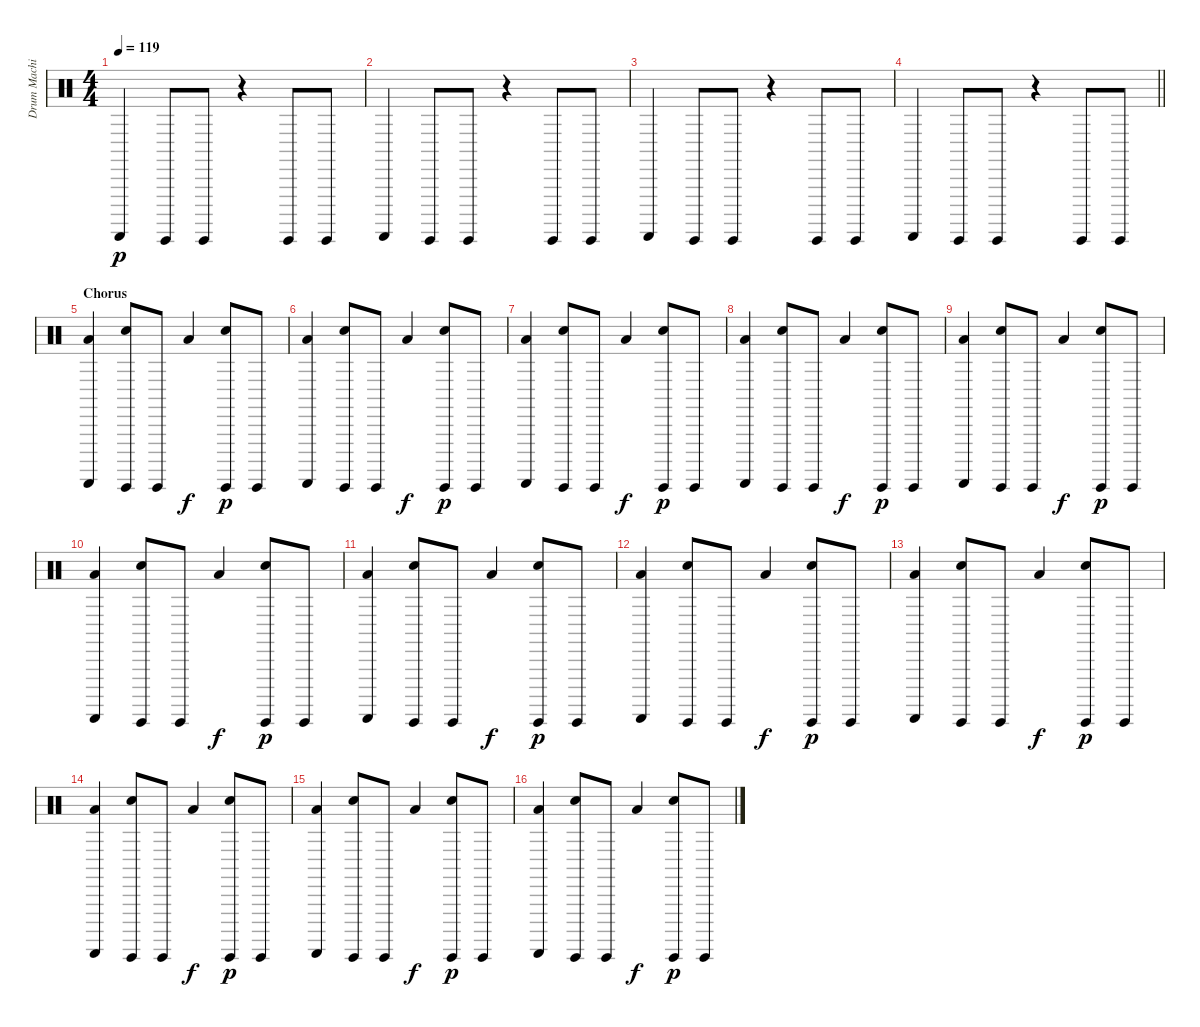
\track ("Drum Machine" "Drum Machi") {instrument percussion}
\staff {score}
\articulation defaults
\ts (4 4)
\tempo 119
\clef neutral
\ks c "Guiro (scrap-return)".4{dy p} "Guiro (hit)".8 "Guiro (hit)".8
r.4 "Guiro (hit)".8 "Guiro (hit)".8 |
"Guiro (scrap-return)".4 "Guiro (hit)".8 "Guiro (hit)".8 r.4 "Guiro (hit)".8 "Guiro (hit)".8 |
"Guiro (scrap-return)".4 "Guiro (hit)".8 "Guiro (hit)".8 r.4 "Guiro (hit)".8 "Guiro (hit)".8 |
\barLineRight lightlight "Guiro (scrap-return)".4 "Guiro (hit)".8 "Guiro (hit)".8
r.4 "Guiro (hit)".8 "Guiro (hit)".8 |
\section ("" "Chorus")
("Low Floor Tom (hit)" "Guiro (scrap-return)").4 ("Snare (hit) 2" "Guiro (hit)").8 "Guiro (hit)".8 "Low Floor Tom (hit)".4{dy f} ("Snare (hit) 2" "Guiro (hit)").8{dy p} "Guiro (hit)".8 |
("Low Floor Tom (hit)" "Guiro (scrap-return)").4 ("Snare (hit) 2" "Guiro (hit)").8 "Guiro (hit)".8 "Low Floor Tom (hit)".4{dy f} ("Snare (hit) 2" "Guiro (hit)").8{dy p} "Guiro (hit)".8 |
("Low Floor Tom (hit)" "Guiro (scrap-return)").4 ("Snare (hit) 2" "Guiro (hit)").8 "Guiro (hit)".8 "Low Floor Tom (hit)".4{dy f} ("Snare (hit) 2" "Guiro (hit)").8{dy p} "Guiro (hit)".8 |
("Low Floor Tom (hit)" "Guiro (scrap-return)").4 ("Snare (hit) 2" "Guiro (hit)").8 "Guiro (hit)".8 "Low Floor Tom (hit)".4{dy f} ("Snare (hit) 2" "Guiro (hit)").8{dy p} "Guiro (hit)".8 |
("Low Floor Tom (hit)" "Guiro (scrap-return)").4 ("Snare (hit) 2" "Guiro (hit)").8 "Guiro (hit)".8 "Low Floor Tom (hit)".4{dy f} ("Snare (hit) 2" "Guiro (hit)").8{dy p} "Guiro (hit)".8 |
("Low Floor Tom (hit)" "Guiro (scrap-return)").4 ("Snare (hit) 2" "Guiro (hit)").8 "Guiro (hit)".8 "Low Floor Tom (hit)".4{dy f} ("Snare (hit) 2" "Guiro (hit)").8{dy p} "Guiro (hit)".8 |
("Low Floor Tom (hit)" "Guiro (scrap-return)").4 ("Snare (hit) 2" "Guiro (hit)").8 "Guiro (hit)".8 "Low Floor Tom (hit)".4{dy f} ("Snare (hit) 2" "Guiro (hit)").8{dy p} "Guiro (hit)".8 |
("Low Floor Tom (hit)" "Guiro (scrap-return)").4 ("Snare (hit) 2" "Guiro (hit)").8 "Guiro (hit)".8 "Low Floor Tom (hit)".4{dy f} ("Snare (hit) 2" "Guiro (hit)").8{dy p} "Guiro (hit)".8 |
("Low Floor Tom (hit)" "Guiro (scrap-return)").4 ("Snare (hit) 2" "Guiro (hit)").8 "Guiro (hit)".8 "Low Floor Tom (hit)".4{dy f} ("Snare (hit) 2" "Guiro (hit)").8{dy p} "Guiro (hit)".8 |
("Low Floor Tom (hit)" "Guiro (scrap-return)").4 ("Snare (hit) 2" "Guiro (hit)").8 "Guiro (hit)".8 "Low Floor Tom (hit)".4{dy f} ("Snare (hit) 2" "Guiro (hit)").8{dy p} "Guiro (hit)".8 |
("Low Floor Tom (hit)" "Guiro (scrap-return)").4 ("Snare (hit) 2" "Guiro (hit)").8 "Guiro (hit)".8 "Low Floor Tom (hit)".4{dy f} ("Snare (hit) 2" "Guiro (hit)").8{dy p} "Guiro (hit)".8 |
("Low Floor Tom (hit)" "Guiro (scrap-return)").4 ("Snare (hit) 2" "Guiro (hit)").8 "Guiro (hit)".8 "Low Floor Tom (hit)".4{dy f} ("Snare (hit) 2" "Guiro (hit)").8{dy p} "Guiro (hit)".8
